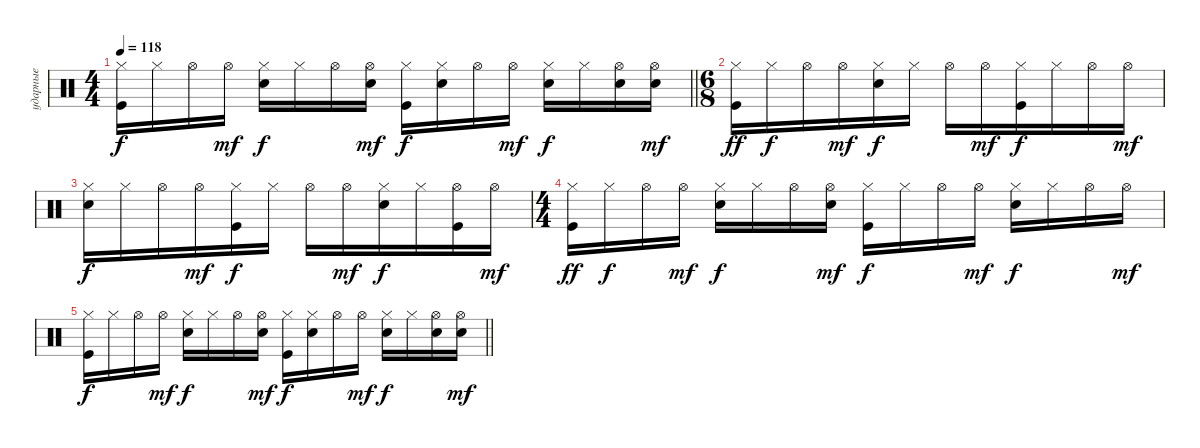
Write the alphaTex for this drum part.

\track ("ударные" "ударные") {instrument percussion}
\staff {score}
\articulation defaults
\ts (4 4)
\tempo 118
\clef neutral
\barLineRight lightlight
\ks c
("Kick (hit)" "Hi-Hat (closed)").16{dy f} "Hi-Hat (closed)".16 "Hi-Hat (open)".16 "Hi-Hat (open)".16{dy mf} ("Electric Snare (hit)" "Hi-Hat (closed)").16{dy f} "Hi-Hat (closed)".16 "Hi-Hat (open)".16 ("Hi-Hat (open)" "Electric Snare (hit)").16{dy mf} ("Hi-Hat (closed)" "Kick (hit)").16{dy f} ("Electric Snare (hit)" "Hi-Hat (closed)").16 "Hi-Hat (open)".16 "Hi-Hat (open)".16{dy mf} ("Electric Snare (hit)" "Hi-Hat (closed)").16{dy f} "Hi-Hat (closed)".16 ("Electric Snare (hit)" "Hi-Hat (open)").16 ("Electric Snare (hit)" "Hi-Hat (open)").16{dy mf} |
\ts (6 8)
("Hi-Hat (closed)" "Kick (hit)").16{dy ff} "Hi-Hat (closed)".16{dy f} "Hi-Hat (open)".16 "Hi-Hat (open)".16{dy mf} ("Electric Snare (hit)" "Hi-Hat (closed)").16{dy f} "Hi-Hat (closed)".16 "Hi-Hat (open)".16 "Hi-Hat (open)".16{dy mf} ("Kick (hit)" "Hi-Hat (closed)").16{dy f} "Hi-Hat (closed)".16 "Hi-Hat (open)".16 "Hi-Hat (open)".16{dy mf} |
("Electric Snare (hit)" "Hi-Hat (closed)").16{dy f} "Hi-Hat (closed)".16 "Hi-Hat (open)".16 "Hi-Hat (open)".16{dy mf} ("Kick (hit)" "Hi-Hat (closed)").16{dy f} "Hi-Hat (closed)".16 "Hi-Hat (open)".16 "Hi-Hat (open)".16{dy mf} ("Electric Snare (hit)" "Hi-Hat (closed)").16{dy f} "Hi-Hat (closed)".16 ("Kick (hit)" "Hi-Hat (open)").16 "Hi-Hat (open)".16{dy mf} |
\ts (4 4)
("Kick (hit)" "Hi-Hat (closed)").16{dy ff} "Hi-Hat (closed)".16{dy f volume 13} "Hi-Hat (open)".16{volume 12} "Hi-Hat (open)".16{dy mf volume 12} ("Electric Snare (hit)" "Hi-Hat (closed)").16{dy f volume 12} "Hi-Hat (closed)".16{volume 11} "Hi-Hat (open)".16{volume 11} ("Hi-Hat (open)" "Electric Snare (hit)").16{dy mf volume 10} ("Hi-Hat (closed)" "Kick (hit)").16{dy f volume 10} "Hi-Hat (closed)".16{volume 10} "Hi-Hat (open)".16{volume 10} "Hi-Hat (open)".16{dy mf volume 9} ("Electric Snare (hit)" "Hi-Hat (closed)").16{dy f volume 9} "Hi-Hat (closed)".16{volume 8} "Hi-Hat (open)".16{volume 8} "Hi-Hat (open)".16{dy mf volume 8} |
\barLineRight lightlight
("Kick (hit)" "Hi-Hat (closed)").16{dy f volume 7} "Hi-Hat (closed)".16{volume 7} "Hi-Hat (open)".16{volume 7} "Hi-Hat (open)".16{dy mf volume 6} ("Electric Snare (hit)" "Hi-Hat (closed)").16{dy f volume 6} "Hi-Hat (closed)".16{volume 6} "Hi-Hat (open)".16{volume 5} ("Hi-Hat (open)" "Electric Snare (hit)").16{dy mf volume 5} ("Hi-Hat (closed)" "Kick (hit)").16{dy f volume 5} ("Electric Snare (hit)" "Hi-Hat (closed)").16{volume 4} "Hi-Hat (open)".16{volume 4} "Hi-Hat (open)".16{dy mf volume 4} ("Electric Snare (hit)" "Hi-Hat (closed)").16{dy f volume 3} "Hi-Hat (closed)".16{volume 3} ("Electric Snare (hit)" "Hi-Hat (open)").16{volume 3} ("Electric Snare (hit)" "Hi-Hat (open)").16{dy mf volume 2}
